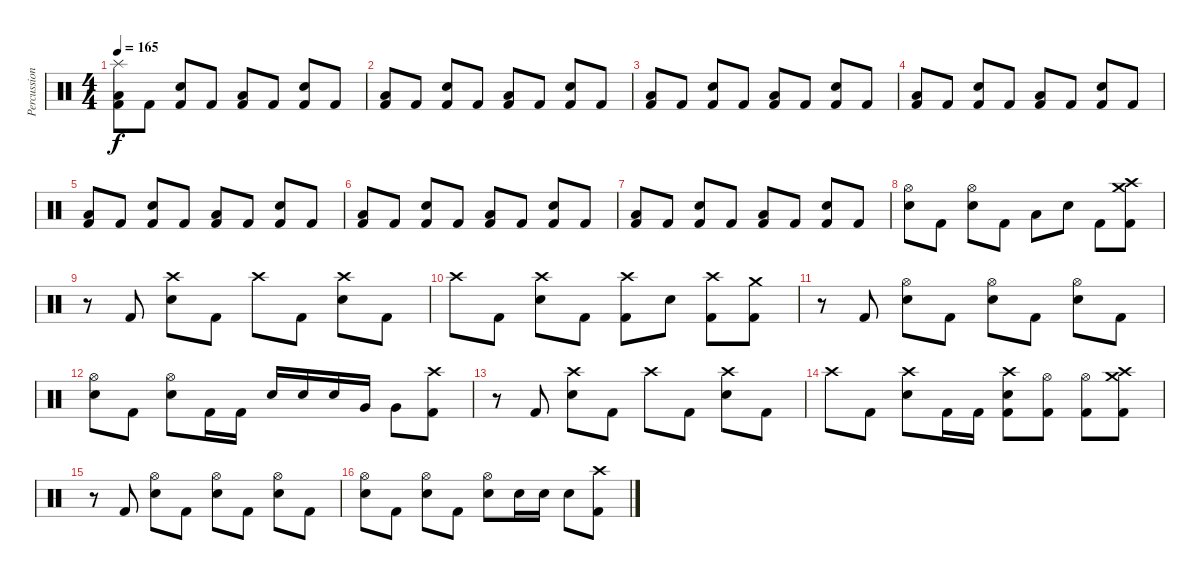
\track ("Percussion" "Percussion") {instrument percussion}
\staff {score}
\articulation defaults
\ts (4 4)
\tempo 165
\clef neutral
\ks c
("Splash (hit)" "Low Floor Tom (hit)" "Kick (hit) 2").8{dy f} "Kick (hit) 2".8 ("Electric Snare (hit)" "Kick (hit) 2").8 "Kick (hit) 2".8 ("Low Floor Tom (hit)" "Kick (hit) 2").8 "Kick (hit) 2".8 ("Electric Snare (hit)" "Kick (hit) 2").8 "Kick (hit) 2".8 |
("Low Floor Tom (hit)" "Kick (hit) 2").8 "Kick (hit) 2".8 ("Electric Snare (hit)" "Kick (hit) 2").8 "Kick (hit) 2".8 ("Low Floor Tom (hit)" "Kick (hit) 2").8 "Kick (hit) 2".8 ("Electric Snare (hit)" "Kick (hit) 2").8 "Kick (hit) 2".8 |
("Low Floor Tom (hit)" "Kick (hit) 2").8 "Kick (hit) 2".8 ("Electric Snare (hit)" "Kick (hit) 2").8 "Kick (hit) 2".8 ("Low Floor Tom (hit)" "Kick (hit) 2").8 "Kick (hit) 2".8 ("Electric Snare (hit)" "Kick (hit) 2").8 "Kick (hit) 2".8 |
("Low Floor Tom (hit)" "Kick (hit) 2").8 "Kick (hit) 2".8 ("Electric Snare (hit)" "Kick (hit) 2").8 "Kick (hit) 2".8 ("Low Floor Tom (hit)" "Kick (hit) 2").8 "Kick (hit) 2".8 ("Electric Snare (hit)" "Kick (hit) 2").8 "Kick (hit) 2".8 |
("Low Floor Tom (hit)" "Kick (hit) 2").8 "Kick (hit) 2".8 ("Electric Snare (hit)" "Kick (hit) 2").8 "Kick (hit) 2".8 ("Low Floor Tom (hit)" "Kick (hit) 2").8 "Kick (hit) 2".8 ("Electric Snare (hit)" "Kick (hit) 2").8 "Kick (hit) 2".8 |
("Low Floor Tom (hit)" "Kick (hit) 2").8 "Kick (hit) 2".8 ("Electric Snare (hit)" "Kick (hit) 2").8 "Kick (hit) 2".8 ("Low Floor Tom (hit)" "Kick (hit) 2").8 "Kick (hit) 2".8 ("Electric Snare (hit)" "Kick (hit) 2").8 "Kick (hit) 2".8 |
("Low Floor Tom (hit)" "Kick (hit) 2").8 "Kick (hit) 2".8 ("Electric Snare (hit)" "Kick (hit) 2").8 "Kick (hit) 2".8 ("Low Floor Tom (hit)" "Kick (hit) 2").8 "Kick (hit) 2".8 ("Electric Snare (hit)" "Kick (hit) 2").8 "Kick (hit) 2".8 |
("Hi-Hat (open)" "Electric Snare (hit)").8 "Kick (hit) 2".8 ("Hi-Hat (open)" "Electric Snare (hit)").8 "Kick (hit) 2".8 "Low Tom (hit)".8 "Electric Snare (hit)".8 "Kick (hit) 2".8 ("Crash medium (hit)" "Crash high (hit)" "Kick (hit) 2").8 |
r.8 "Kick (hit) 2".8 ("Crash high (hit)" "Electric Snare (hit)").8 "Kick (hit) 2".8 "Crash high (hit)".8 "Kick (hit) 2".8 ("Crash high (hit)" "Electric Snare (hit)").8 "Kick (hit) 2".8 |
"Crash high (hit)".8 "Kick (hit) 2".8 ("Crash high (hit)" "Electric Snare (hit)").8 "Kick (hit) 2".8 ("Crash high (hit)" "Kick (hit) 2").8 "Electric Snare (hit)".8 ("Crash high (hit)" "Kick (hit) 2").8 ("Crash medium (hit)" "Kick (hit) 2").8 |
r.8 "Kick (hit) 2".8 ("Hi-Hat (open)" "Electric Snare (hit)").8 "Kick (hit) 2".8 ("Hi-Hat (open)" "Electric Snare (hit)").8 "Kick (hit) 2".8 ("Hi-Hat (open)" "Electric Snare (hit)").8 "Kick (hit) 2".8 |
("Hi-Hat (open)" "Electric Snare (hit)").8 "Kick (hit) 2".8 ("Hi-Hat (open)" "Electric Snare (hit)").8 "Kick (hit) 2".16 "Kick (hit) 2".16 "Electric Snare (hit)".16 "Electric Snare (hit)".16 "Electric Snare (hit)".16 "Very Low Tom (hit)".16 "Very Low Tom (hit)".8 ("Crash high (hit)" "Kick (hit) 2").8 |
r.8 "Kick (hit) 2".8 ("Crash high (hit)" "Electric Snare (hit)").8 "Kick (hit) 2".8 "Crash high (hit)".8 "Kick (hit) 2".8 ("Crash high (hit)" "Electric Snare (hit)").8 "Kick (hit) 2".8 |
"Crash high (hit)".8 "Kick (hit) 2".8 ("Crash high (hit)" "Electric Snare (hit)").8 "Kick (hit) 2".16 "Kick (hit) 2".16 ("Crash high (hit)" "Electric Snare (hit)" "Kick (hit) 2").8 ("Hi-Hat (open)" "Kick (hit) 2").8 ("Hi-Hat (open)" "Kick (hit) 2").8 ("Crash medium (hit)" "Crash high (hit)" "Kick (hit) 2").8 |
r.8 "Kick (hit) 2".8 ("Hi-Hat (open)" "Electric Snare (hit)").8 "Kick (hit) 2".8 ("Hi-Hat (open)" "Electric Snare (hit)").8 "Kick (hit) 2".8 ("Hi-Hat (open)" "Electric Snare (hit)").8 "Kick (hit) 2".8 |
("Hi-Hat (open)" "Electric Snare (hit)").8 "Kick (hit) 2".8 ("Hi-Hat (open)" "Electric Snare (hit)").8 "Kick (hit) 2".8 ("Hi-Hat (open)" "Electric Snare (hit)").8 "Electric Snare (hit)".16 "Electric Snare (hit)".16 "Electric Snare (hit)".8 ("Crash high (hit)" "Kick (hit) 2").8
